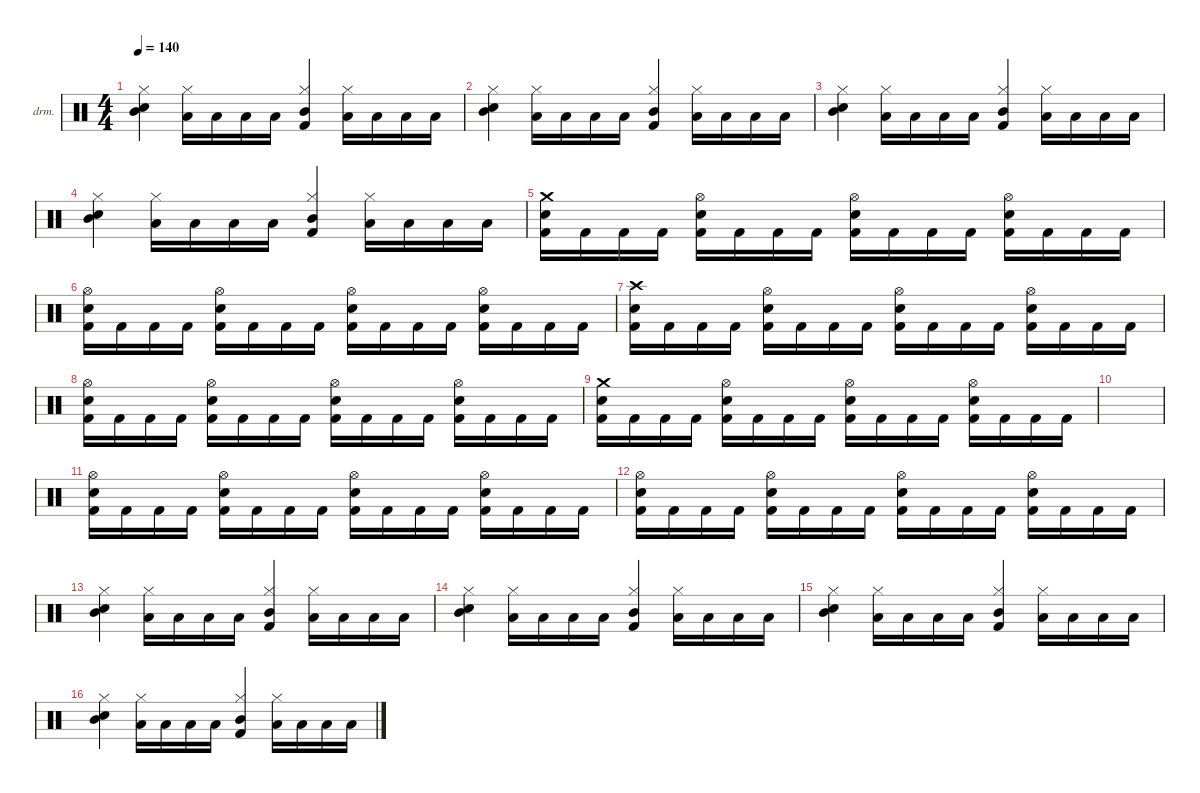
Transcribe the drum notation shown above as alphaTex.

\defaultSystemsLayout 4
\hideDynamics
\bracketExtendMode nobrackets
\firstSystemTrackNameOrientation horizontal
\otherSystemsTrackNameOrientation horizontal
\track ("Drumkit" "drm.") {instrument percussion}
\staff {score}
\articulation defaults
\ts (4 4)
\tempo 140
\clef neutral
\ks c
("Snare (hit) 2" "Mid Tom (hit)" "Hi-Hat (closed)").4{dy fff} ("Low Tom (hit)" "Hi-Hat (closed)").16 "Low Tom (hit)".16 "Low Tom (hit)".16 "Low Tom (hit)".16 ("Mid Tom (hit)" "Kick (hit) 2" "Hi-Hat (closed)").4 ("Low Tom (hit)" "Hi-Hat (closed)").16 "Low Tom (hit)".16 "Low Tom (hit)".16 "Low Tom (hit)".16 |
("Snare (hit) 2" "Mid Tom (hit)" "Hi-Hat (closed)").4 ("Low Tom (hit)" "Hi-Hat (closed)").16 "Low Tom (hit)".16 "Low Tom (hit)".16 "Low Tom (hit)".16 ("Mid Tom (hit)" "Kick (hit) 2" "Hi-Hat (closed)").4 ("Low Tom (hit)" "Hi-Hat (closed)").16 "Low Tom (hit)".16 "Low Tom (hit)".16 "Low Tom (hit)".16 |
("Snare (hit) 2" "Mid Tom (hit)" "Hi-Hat (closed)").4 ("Low Tom (hit)" "Hi-Hat (closed)").16 "Low Tom (hit)".16 "Low Tom (hit)".16 "Low Tom (hit)".16 ("Mid Tom (hit)" "Kick (hit) 2" "Hi-Hat (closed)").4 ("Low Tom (hit)" "Hi-Hat (closed)").16 "Low Tom (hit)".16 "Low Tom (hit)".16 "Low Tom (hit)".16 |
("Snare (hit) 2" "Mid Tom (hit)" "Hi-Hat (closed)").4 ("Low Tom (hit)" "Hi-Hat (closed)").16 "Low Tom (hit)".16 "Low Tom (hit)".16 "Low Tom (hit)".16 ("Mid Tom (hit)" "Kick (hit) 2" "Hi-Hat (closed)").4 ("Low Tom (hit)" "Hi-Hat (closed)").16 "Low Tom (hit)".16 "Low Tom (hit)".16 "Low Tom (hit)".16 |
("Crash medium (hit)" "Snare (hit) 2" "Kick (hit) 2").16{dy mf} "Kick (hit) 2".16 "Kick (hit) 2".16 "Kick (hit) 2".16 ("Hi-Hat (open)" "Snare (hit) 2" "Kick (hit) 2").16 "Kick (hit) 2".16 "Kick (hit) 2".16 "Kick (hit) 2".16 ("Hi-Hat (open)" "Snare (hit) 2" "Kick (hit) 2").16 "Kick (hit) 2".16 "Kick (hit) 2".16 "Kick (hit) 2".16 ("Hi-Hat (open)" "Snare (hit) 2" "Kick (hit) 2").16 "Kick (hit) 2".16 "Kick (hit) 2".16 "Kick (hit) 2".16 |
("Hi-Hat (open)" "Snare (hit) 2" "Kick (hit) 2").16 "Kick (hit) 2".16 "Kick (hit) 2".16 "Kick (hit) 2".16 ("Hi-Hat (open)" "Snare (hit) 2" "Kick (hit) 2").16 "Kick (hit) 2".16 "Kick (hit) 2".16 "Kick (hit) 2".16 ("Hi-Hat (open)" "Snare (hit) 2" "Kick (hit) 2").16 "Kick (hit) 2".16 "Kick (hit) 2".16 "Kick (hit) 2".16 ("Hi-Hat (open)" "Snare (hit) 2" "Kick (hit) 2").16 "Kick (hit) 2".16 "Kick (hit) 2".16 "Kick (hit) 2".16 |
("Crash high (hit)" "Snare (hit) 2" "Kick (hit) 2").16 "Kick (hit) 2".16 "Kick (hit) 2".16 "Kick (hit) 2".16 ("Hi-Hat (open)" "Snare (hit) 2" "Kick (hit) 2").16 "Kick (hit) 2".16 "Kick (hit) 2".16 "Kick (hit) 2".16 ("Hi-Hat (open)" "Snare (hit) 2" "Kick (hit) 2").16 "Kick (hit) 2".16 "Kick (hit) 2".16 "Kick (hit) 2".16 ("Hi-Hat (open)" "Snare (hit) 2" "Kick (hit) 2").16 "Kick (hit) 2".16 "Kick (hit) 2".16 "Kick (hit) 2".16 |
("Hi-Hat (open)" "Snare (hit) 2" "Kick (hit) 2").16 "Kick (hit) 2".16 "Kick (hit) 2".16 "Kick (hit) 2".16 ("Hi-Hat (open)" "Snare (hit) 2" "Kick (hit) 2").16 "Kick (hit) 2".16 "Kick (hit) 2".16 "Kick (hit) 2".16 ("Hi-Hat (open)" "Snare (hit) 2" "Kick (hit) 2").16 "Kick (hit) 2".16 "Kick (hit) 2".16 "Kick (hit) 2".16 ("Hi-Hat (open)" "Snare (hit) 2" "Kick (hit) 2").16 "Kick (hit) 2".16 "Kick (hit) 2".16 "Kick (hit) 2".16 |
("Crash medium (hit)" "Snare (hit) 2" "Kick (hit) 2").16 "Kick (hit) 2".16 "Kick (hit) 2".16 "Kick (hit) 2".16 ("Hi-Hat (open)" "Snare (hit) 2" "Kick (hit) 2").16 "Kick (hit) 2".16 "Kick (hit) 2".16 "Kick (hit) 2".16 ("Hi-Hat (open)" "Snare (hit) 2" "Kick (hit) 2").16 "Kick (hit) 2".16 "Kick (hit) 2".16 "Kick (hit) 2".16 ("Hi-Hat (open)" "Snare (hit) 2" "Kick (hit) 2").16 "Kick (hit) 2".16 "Kick (hit) 2".16 "Kick (hit) 2".16 |
|
("Hi-Hat (open)" "Snare (hit) 2" "Kick (hit) 2").16 "Kick (hit) 2".16 "Kick (hit) 2".16 "Kick (hit) 2".16 ("Hi-Hat (open)" "Snare (hit) 2" "Kick (hit) 2").16 "Kick (hit) 2".16 "Kick (hit) 2".16 "Kick (hit) 2".16 ("Hi-Hat (open)" "Snare (hit) 2" "Kick (hit) 2").16 "Kick (hit) 2".16 "Kick (hit) 2".16 "Kick (hit) 2".16 ("Hi-Hat (open)" "Snare (hit) 2" "Kick (hit) 2").16 "Kick (hit) 2".16 "Kick (hit) 2".16 "Kick (hit) 2".16 |
("Hi-Hat (open)" "Snare (hit) 2" "Kick (hit) 2").16 "Kick (hit) 2".16 "Kick (hit) 2".16 "Kick (hit) 2".16 ("Hi-Hat (open)" "Snare (hit) 2" "Kick (hit) 2").16 "Kick (hit) 2".16 "Kick (hit) 2".16 "Kick (hit) 2".16 ("Hi-Hat (open)" "Snare (hit) 2" "Kick (hit) 2").16 "Kick (hit) 2".16 "Kick (hit) 2".16 "Kick (hit) 2".16 ("Hi-Hat (open)" "Snare (hit) 2" "Kick (hit) 2").16 "Kick (hit) 2".16 "Kick (hit) 2".16 "Kick (hit) 2".16 |
("Snare (hit) 2" "Mid Tom (hit)" "Hi-Hat (closed)").4{dy fff} ("Low Tom (hit)" "Hi-Hat (closed)").16 "Low Tom (hit)".16 "Low Tom (hit)".16 "Low Tom (hit)".16 ("Mid Tom (hit)" "Kick (hit) 2" "Hi-Hat (closed)").4 ("Low Tom (hit)" "Hi-Hat (closed)").16 "Low Tom (hit)".16 "Low Tom (hit)".16 "Low Tom (hit)".16 |
("Snare (hit) 2" "Mid Tom (hit)" "Hi-Hat (closed)").4 ("Low Tom (hit)" "Hi-Hat (closed)").16 "Low Tom (hit)".16 "Low Tom (hit)".16 "Low Tom (hit)".16 ("Mid Tom (hit)" "Kick (hit) 2" "Hi-Hat (closed)").4 ("Low Tom (hit)" "Hi-Hat (closed)").16 "Low Tom (hit)".16 "Low Tom (hit)".16 "Low Tom (hit)".16 |
("Snare (hit) 2" "Mid Tom (hit)" "Hi-Hat (closed)").4 ("Low Tom (hit)" "Hi-Hat (closed)").16 "Low Tom (hit)".16 "Low Tom (hit)".16 "Low Tom (hit)".16 ("Mid Tom (hit)" "Kick (hit) 2" "Hi-Hat (closed)").4 ("Low Tom (hit)" "Hi-Hat (closed)").16 "Low Tom (hit)".16 "Low Tom (hit)".16 "Low Tom (hit)".16 |
("Snare (hit) 2" "Mid Tom (hit)" "Hi-Hat (closed)").4 ("Low Tom (hit)" "Hi-Hat (closed)").16 "Low Tom (hit)".16 "Low Tom (hit)".16 "Low Tom (hit)".16 ("Mid Tom (hit)" "Kick (hit) 2" "Hi-Hat (closed)").4 ("Low Tom (hit)" "Hi-Hat (closed)").16 "Low Tom (hit)".16 "Low Tom (hit)".16 "Low Tom (hit)".16
